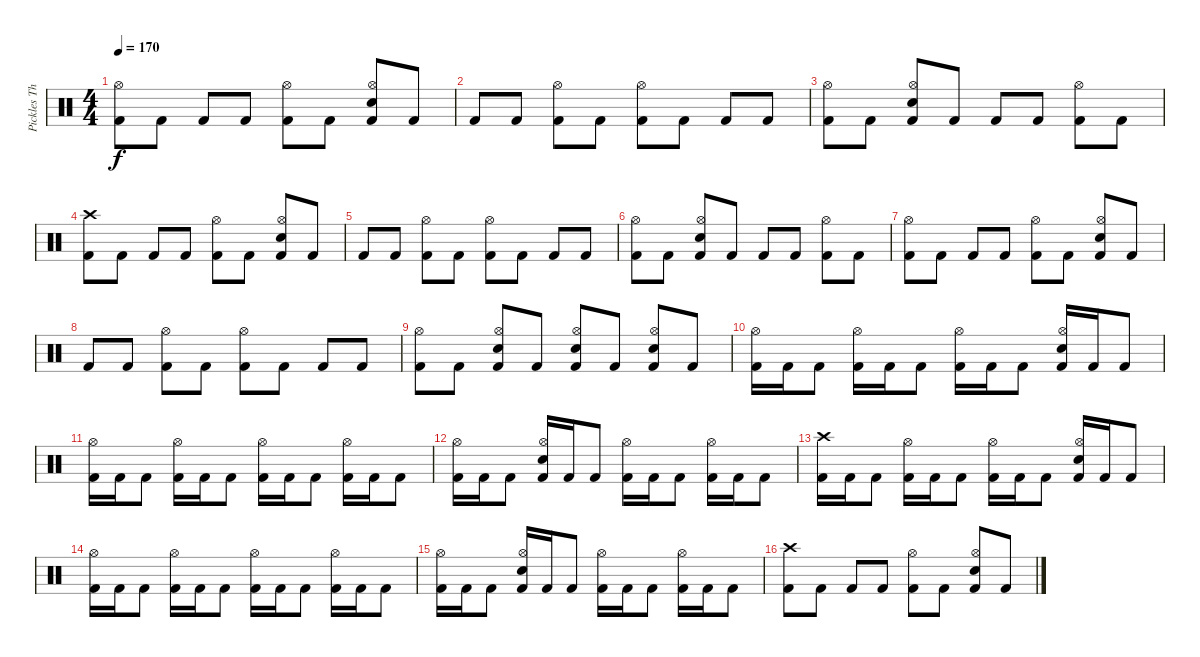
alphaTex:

\track ("Pickles The Drummer" "Pickles Th") {instrument percussion}
\staff {score}
\articulation defaults
\ts (4 4)
\tempo 170
\clef neutral
\ks c
("Kick (hit) 2" "Hi-Hat (open)").8{dy f} "Kick (hit) 2".8 "Kick (hit) 2".8 "Kick (hit) 2".8 ("Kick (hit) 2" "Hi-Hat (open)").8 "Kick (hit) 2".8 ("Kick (hit) 2" "Hi-Hat (open)" "Snare (hit) 2").8 "Kick (hit) 2".8 |
"Kick (hit) 2".8 "Kick (hit) 2".8 ("Kick (hit) 2" "Hi-Hat (open)").8 "Kick (hit) 2".8 ("Kick (hit) 2" "Hi-Hat (open)").8 "Kick (hit) 2".8 "Kick (hit) 2".8 "Kick (hit) 2".8 |
("Kick (hit) 2" "Hi-Hat (open)").8 "Kick (hit) 2".8 ("Kick (hit) 2" "Hi-Hat (open)" "Snare (hit) 2").8 "Kick (hit) 2".8 "Kick (hit) 2".8 "Kick (hit) 2".8 ("Kick (hit) 2" "Hi-Hat (open)").8 "Kick (hit) 2".8 |
("Kick (hit) 2" "Crash high (hit)").8 "Kick (hit) 2".8 "Kick (hit) 2".8 "Kick (hit) 2".8 ("Kick (hit) 2" "Hi-Hat (open)").8 "Kick (hit) 2".8 ("Kick (hit) 2" "Hi-Hat (open)" "Snare (hit) 2").8 "Kick (hit) 2".8 |
"Kick (hit) 2".8 "Kick (hit) 2".8 ("Kick (hit) 2" "Hi-Hat (open)").8 "Kick (hit) 2".8 ("Kick (hit) 2" "Hi-Hat (open)").8 "Kick (hit) 2".8 "Kick (hit) 2".8 "Kick (hit) 2".8 |
("Kick (hit) 2" "Hi-Hat (open)").8 "Kick (hit) 2".8 ("Kick (hit) 2" "Hi-Hat (open)" "Snare (hit) 2").8 "Kick (hit) 2".8 "Kick (hit) 2".8 "Kick (hit) 2".8 ("Kick (hit) 2" "Hi-Hat (open)").8 "Kick (hit) 2".8 |
("Kick (hit) 2" "Hi-Hat (open)").8 "Kick (hit) 2".8 "Kick (hit) 2".8 "Kick (hit) 2".8 ("Kick (hit) 2" "Hi-Hat (open)").8 "Kick (hit) 2".8 ("Kick (hit) 2" "Hi-Hat (open)" "Snare (hit) 2").8 "Kick (hit) 2".8 |
"Kick (hit) 2".8 "Kick (hit) 2".8 ("Kick (hit) 2" "Hi-Hat (open)").8 "Kick (hit) 2".8 ("Kick (hit) 2" "Hi-Hat (open)").8 "Kick (hit) 2".8 "Kick (hit) 2".8 "Kick (hit) 2".8 |
("Kick (hit) 2" "Hi-Hat (open)").8 "Kick (hit) 2".8 ("Kick (hit) 2" "Hi-Hat (open)" "Snare (hit) 2").8 "Kick (hit) 2".8 ("Kick (hit) 2" "Hi-Hat (open)" "Snare (hit) 2").8 "Kick (hit) 2".8 ("Kick (hit) 2" "Hi-Hat (open)" "Snare (hit) 2").8 "Kick (hit) 2".8 |
("Kick (hit) 2" "Hi-Hat (open)").16 "Kick (hit) 2".16 "Kick (hit) 2".8 ("Kick (hit) 2" "Hi-Hat (open)").16 "Kick (hit) 2".16 "Kick (hit) 2".8 ("Kick (hit) 2" "Hi-Hat (open)").16 "Kick (hit) 2".16 "Kick (hit) 2".8 ("Kick (hit) 2" "Hi-Hat (open)" "Snare (hit) 2").16 "Kick (hit) 2".16 "Kick (hit) 2".8 |
("Kick (hit) 2" "Hi-Hat (open)").16 "Kick (hit) 2".16 "Kick (hit) 2".8 ("Kick (hit) 2" "Hi-Hat (open)").16 "Kick (hit) 2".16 "Kick (hit) 2".8 ("Kick (hit) 2" "Hi-Hat (open)").16 "Kick (hit) 2".16 "Kick (hit) 2".8 ("Kick (hit) 2" "Hi-Hat (open)").16 "Kick (hit) 2".16 "Kick (hit) 2".8 |
("Kick (hit) 2" "Hi-Hat (open)").16 "Kick (hit) 2".16 "Kick (hit) 2".8 ("Kick (hit) 2" "Hi-Hat (open)" "Snare (hit) 2").16 "Kick (hit) 2".16 "Kick (hit) 2".8 ("Kick (hit) 2" "Hi-Hat (open)").16 "Kick (hit) 2".16 "Kick (hit) 2".8 ("Kick (hit) 2" "Hi-Hat (open)").16 "Kick (hit) 2".16 "Kick (hit) 2".8 |
("Kick (hit) 2" "Crash high (hit)").16 "Kick (hit) 2".16 "Kick (hit) 2".8 ("Kick (hit) 2" "Hi-Hat (open)").16 "Kick (hit) 2".16 "Kick (hit) 2".8 ("Kick (hit) 2" "Hi-Hat (open)").16 "Kick (hit) 2".16 "Kick (hit) 2".8 ("Kick (hit) 2" "Hi-Hat (open)" "Snare (hit) 2").16 "Kick (hit) 2".16 "Kick (hit) 2".8 |
("Kick (hit) 2" "Hi-Hat (open)").16 "Kick (hit) 2".16 "Kick (hit) 2".8 ("Kick (hit) 2" "Hi-Hat (open)").16 "Kick (hit) 2".16 "Kick (hit) 2".8 ("Kick (hit) 2" "Hi-Hat (open)").16 "Kick (hit) 2".16 "Kick (hit) 2".8 ("Kick (hit) 2" "Hi-Hat (open)").16 "Kick (hit) 2".16 "Kick (hit) 2".8 |
("Kick (hit) 2" "Hi-Hat (open)").16 "Kick (hit) 2".16 "Kick (hit) 2".8 ("Kick (hit) 2" "Hi-Hat (open)" "Snare (hit) 2").16 "Kick (hit) 2".16 "Kick (hit) 2".8 ("Kick (hit) 2" "Hi-Hat (open)").16 "Kick (hit) 2".16 "Kick (hit) 2".8 ("Kick (hit) 2" "Hi-Hat (open)").16 "Kick (hit) 2".16 "Kick (hit) 2".8 |
("Kick (hit) 2" "Crash high (hit)").8 "Kick (hit) 2".8 "Kick (hit) 2".8 "Kick (hit) 2".8 ("Kick (hit) 2" "Hi-Hat (open)").8 "Kick (hit) 2".8 ("Kick (hit) 2" "Hi-Hat (open)" "Snare (hit) 2").8 "Kick (hit) 2".8
